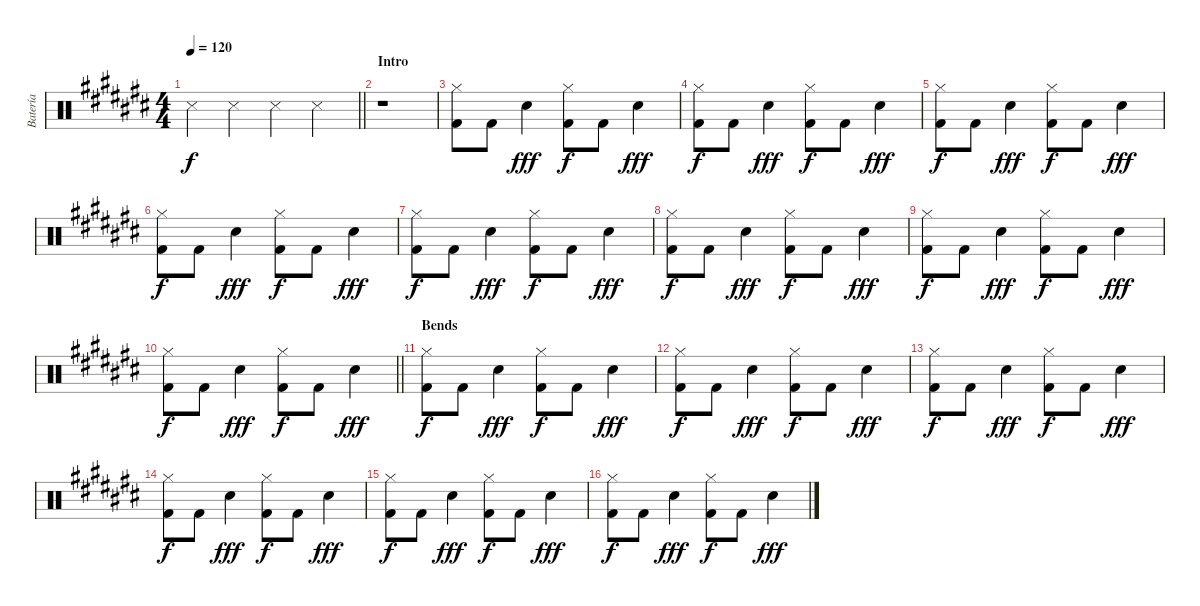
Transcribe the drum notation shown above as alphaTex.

\track ("Batería" "Batería") {instrument percussion}
\staff {score}
\articulation defaults
\ts (4 4)
\tempo 120
\clef neutral
\barLineRight lightlight
\ks c# "Snare (side stick) 3".4{dy f} "Snare (side stick) 3".4 "Snare (side stick) 3".4 "Snare (side stick) 3".4
|
\section ("" "Intro")
r.1 |
("Hi-Hat (closed)" "Kick (hit) 2").8 "Kick (hit) 2".8 "Snare (hit) 2".4{dy fff} ("Hi-Hat (closed)" "Kick (hit) 2").8{dy f} "Kick (hit) 2".8 "Snare (hit) 2".4{dy fff} |
("Hi-Hat (closed)" "Kick (hit) 2").8{dy f} "Kick (hit) 2".8 "Snare (hit) 2".4{dy fff} ("Hi-Hat (closed)" "Kick (hit) 2").8{dy f} "Kick (hit) 2".8 "Snare (hit) 2".4{dy fff} |
("Hi-Hat (closed)" "Kick (hit) 2").8{dy f} "Kick (hit) 2".8 "Snare (hit) 2".4{dy fff} ("Hi-Hat (closed)" "Kick (hit) 2").8{dy f} "Kick (hit) 2".8 "Snare (hit) 2".4{dy fff} |
("Hi-Hat (closed)" "Kick (hit) 2").8{dy f} "Kick (hit) 2".8 "Snare (hit) 2".4{dy fff} ("Hi-Hat (closed)" "Kick (hit) 2").8{dy f} "Kick (hit) 2".8 "Snare (hit) 2".4{dy fff} |
("Hi-Hat (closed)" "Kick (hit) 2").8{dy f} "Kick (hit) 2".8 "Snare (hit) 2".4{dy fff} ("Hi-Hat (closed)" "Kick (hit) 2").8{dy f} "Kick (hit) 2".8 "Snare (hit) 2".4{dy fff} |
("Hi-Hat (closed)" "Kick (hit) 2").8{dy f} "Kick (hit) 2".8 "Snare (hit) 2".4{dy fff} ("Hi-Hat (closed)" "Kick (hit) 2").8{dy f} "Kick (hit) 2".8 "Snare (hit) 2".4{dy fff} |
("Hi-Hat (closed)" "Kick (hit) 2").8{dy f} "Kick (hit) 2".8 "Snare (hit) 2".4{dy fff} ("Hi-Hat (closed)" "Kick (hit) 2").8{dy f} "Kick (hit) 2".8 "Snare (hit) 2".4{dy fff} |
\barLineRight lightlight
("Hi-Hat (closed)" "Kick (hit) 2").8{dy f} "Kick (hit) 2".8 "Snare (hit) 2".4{dy fff} ("Hi-Hat (closed)" "Kick (hit) 2").8{dy f} "Kick (hit) 2".8 "Snare (hit) 2".4{dy fff} |
\section ("" "Bends")
("Hi-Hat (closed)" "Kick (hit) 2").8{dy f} "Kick (hit) 2".8 "Snare (hit) 2".4{dy fff} ("Hi-Hat (closed)" "Kick (hit) 2").8{dy f} "Kick (hit) 2".8 "Snare (hit) 2".4{dy fff} |
("Hi-Hat (closed)" "Kick (hit) 2").8{dy f} "Kick (hit) 2".8 "Snare (hit) 2".4{dy fff} ("Hi-Hat (closed)" "Kick (hit) 2").8{dy f} "Kick (hit) 2".8 "Snare (hit) 2".4{dy fff} |
("Hi-Hat (closed)" "Kick (hit) 2").8{dy f} "Kick (hit) 2".8 "Snare (hit) 2".4{dy fff} ("Hi-Hat (closed)" "Kick (hit) 2").8{dy f} "Kick (hit) 2".8 "Snare (hit) 2".4{dy fff} |
("Hi-Hat (closed)" "Kick (hit) 2").8{dy f} "Kick (hit) 2".8 "Snare (hit) 2".4{dy fff} ("Hi-Hat (closed)" "Kick (hit) 2").8{dy f} "Kick (hit) 2".8 "Snare (hit) 2".4{dy fff} |
("Hi-Hat (closed)" "Kick (hit) 2").8{dy f} "Kick (hit) 2".8 "Snare (hit) 2".4{dy fff} ("Hi-Hat (closed)" "Kick (hit) 2").8{dy f} "Kick (hit) 2".8 "Snare (hit) 2".4{dy fff} |
("Hi-Hat (closed)" "Kick (hit) 2").8{dy f} "Kick (hit) 2".8 "Snare (hit) 2".4{dy fff} ("Hi-Hat (closed)" "Kick (hit) 2").8{dy f} "Kick (hit) 2".8 "Snare (hit) 2".4{dy fff}
